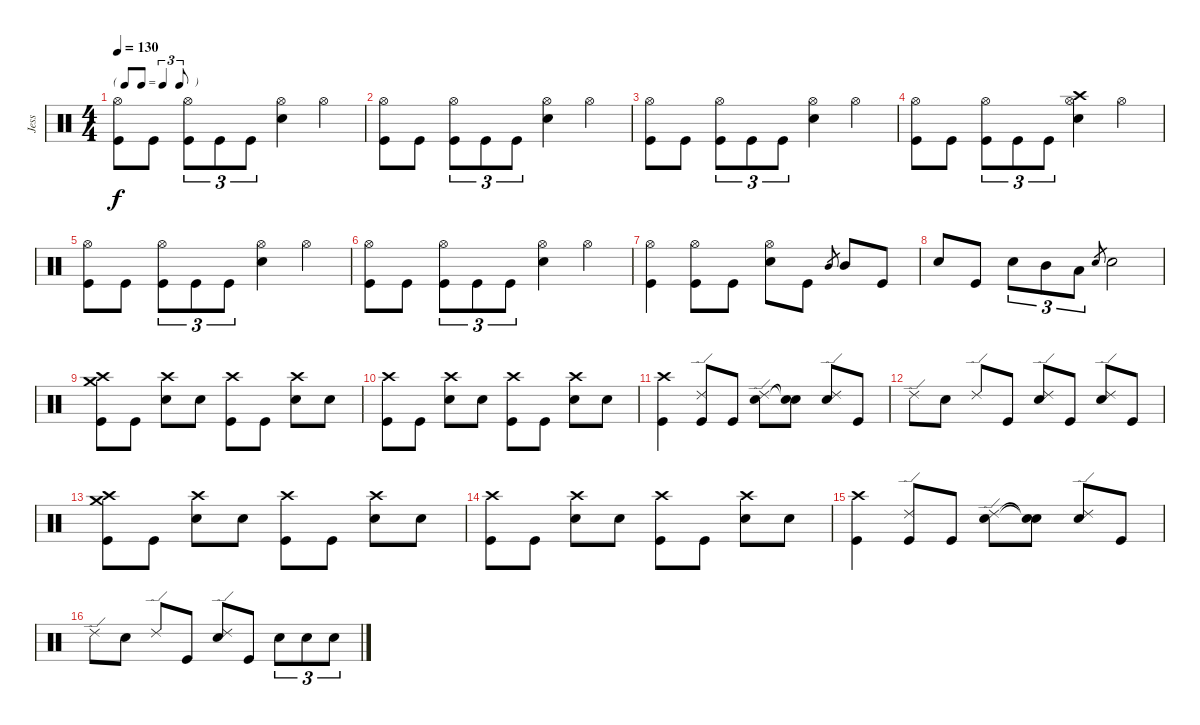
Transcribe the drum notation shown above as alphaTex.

\track ("Jess" "Jess") {instrument percussion}
\staff {score}
\articulation defaults
\ts (4 4)
\tf triplet8th
\tempo 130
\clef neutral
\ks c
("Hi-Hat (open)" "Kick (hit)").8{dy f} "Kick (hit)".8 ("Hi-Hat (open)" "Kick (hit)").8{tu (3 2)} "Kick (hit)".8{tu (3 2)} "Kick (hit)".8{tu (3 2)} ("Hi-Hat (open)" "Electric Snare (hit)").4 "Hi-Hat (open)".4 |
("Hi-Hat (open)" "Kick (hit)").8 "Kick (hit)".8 ("Hi-Hat (open)" "Kick (hit)").8{tu (3 2)} "Kick (hit)".8{tu (3 2)} "Kick (hit)".8{tu (3 2)} ("Hi-Hat (open)" "Electric Snare (hit)").4 "Hi-Hat (open)".4 |
("Hi-Hat (open)" "Kick (hit)").8 "Kick (hit)".8 ("Hi-Hat (open)" "Kick (hit)").8{tu (3 2)} "Kick (hit)".8{tu (3 2)} "Kick (hit)".8{tu (3 2)} ("Hi-Hat (open)" "Electric Snare (hit)").4 "Hi-Hat (open)".4 |
("Hi-Hat (open)" "Kick (hit)").8 "Kick (hit)".8 ("Hi-Hat (open)" "Kick (hit)").8{tu (3 2)} "Kick (hit)".8{tu (3 2)} "Kick (hit)".8{tu (3 2)} ("Crash high (hit)" "Hi-Hat (open)" "Electric Snare (hit)").4 "Hi-Hat (open)".4 |
("Hi-Hat (open)" "Kick (hit)").8 "Kick (hit)".8 ("Hi-Hat (open)" "Kick (hit)").8{tu (3 2)} "Kick (hit)".8{tu (3 2)} "Kick (hit)".8{tu (3 2)} ("Hi-Hat (open)" "Electric Snare (hit)").4 "Hi-Hat (open)".4 |
("Hi-Hat (open)" "Kick (hit)").8 "Kick (hit)".8 ("Hi-Hat (open)" "Kick (hit)").8{tu (3 2)} "Kick (hit)".8{tu (3 2)} "Kick (hit)".8{tu (3 2)} ("Hi-Hat (open)" "Electric Snare (hit)").4 "Hi-Hat (open)".4 |
("Hi-Hat (open)" "Kick (hit)").4 ("Hi-Hat (open)" "Kick (hit)").8 "Kick (hit)".8 ("Hi-Hat (open)" "Snare (hit) 2").8 "Kick (hit)".8 "Mid Tom (hit)".8{gr} "Mid Tom (hit)".8 "Kick (hit)".8 |
"Snare (hit) 2".8 "Kick (hit)".8 "Snare (hit) 2".8{tu (3 2)} "Mid Tom (hit)".8{tu (3 2)} "Low Tom (hit)".8{tu (3 2)} "Snare (hit) 2".8{gr} "Snare (hit) 2".2 |
("Crash high (hit)" "Crash medium (hit)" "Kick (hit)").8 "Kick (hit)".8 ("Crash high (hit)" "Snare (hit) 2").8 "Snare (hit) 2".8 ("Crash high (hit)" "Kick (hit)").8 "Kick (hit)".8 ("Crash high (hit)" "Snare (hit) 2").8 "Snare (hit) 2".8 |
("Crash high (hit)" "Kick (hit)").8 "Kick (hit)".8 ("Crash high (hit)" "Snare (hit) 2").8 "Snare (hit) 2".8 ("Crash high (hit)" "Kick (hit)").8 "Kick (hit)".8 ("Crash high (hit)" "Snare (hit) 2").8 "Snare (hit) 2".8 |
("Crash high (hit)" "Kick (hit)").4 ("Ride (edge) 2" "Kick (hit)").8 "Kick (hit)".8 ("Ride (edge) 2" "Snare (hit) 2").8 ("Snare (hit)"{t} "Snare (hit)"{t}).8 ("Ride (edge) 2" "Snare (hit) 2").8 "Kick (hit)".8 |
"Ride (edge) 2".8 "Snare (hit) 2".8 "Ride (edge) 2".8 "Kick (hit)".8 ("Ride (edge) 2" "Snare (hit) 2").8 "Kick (hit)".8 ("Ride (edge) 2" "Snare (hit) 2").8 "Kick (hit)".8 |
("Crash high (hit)" "Crash medium (hit)" "Kick (hit)").8 "Kick (hit)".8 ("Crash high (hit)" "Snare (hit) 2").8 "Snare (hit) 2".8 ("Crash high (hit)" "Kick (hit)").8 "Kick (hit)".8 ("Crash high (hit)" "Snare (hit) 2").8 "Snare (hit) 2".8 |
("Crash high (hit)" "Kick (hit)").8 "Kick (hit)".8 ("Crash high (hit)" "Snare (hit) 2").8 "Snare (hit) 2".8 ("Crash high (hit)" "Kick (hit)").8 "Kick (hit)".8 ("Crash high (hit)" "Snare (hit) 2").8 "Snare (hit) 2".8 |
("Crash high (hit)" "Kick (hit)").4 ("Ride (edge) 2" "Kick (hit)").8 "Kick (hit)".8 ("Ride (edge) 2" "Snare (hit) 2").8 ("Snare (hit)"{t} "Snare (hit)"{t}).8 ("Ride (edge) 2" "Snare (hit) 2").8 "Kick (hit)".8 |
"Ride (edge) 2".8 "Snare (hit) 2".8 "Ride (edge) 2".8 "Kick (hit)".8 ("Ride (edge) 2" "Snare (hit) 2").8 "Kick (hit)".8 "Snare (hit) 2".8{tu (3 2)} "Snare (hit) 2".8{tu (3 2)} "Snare (hit) 2".8{tu (3 2)}
